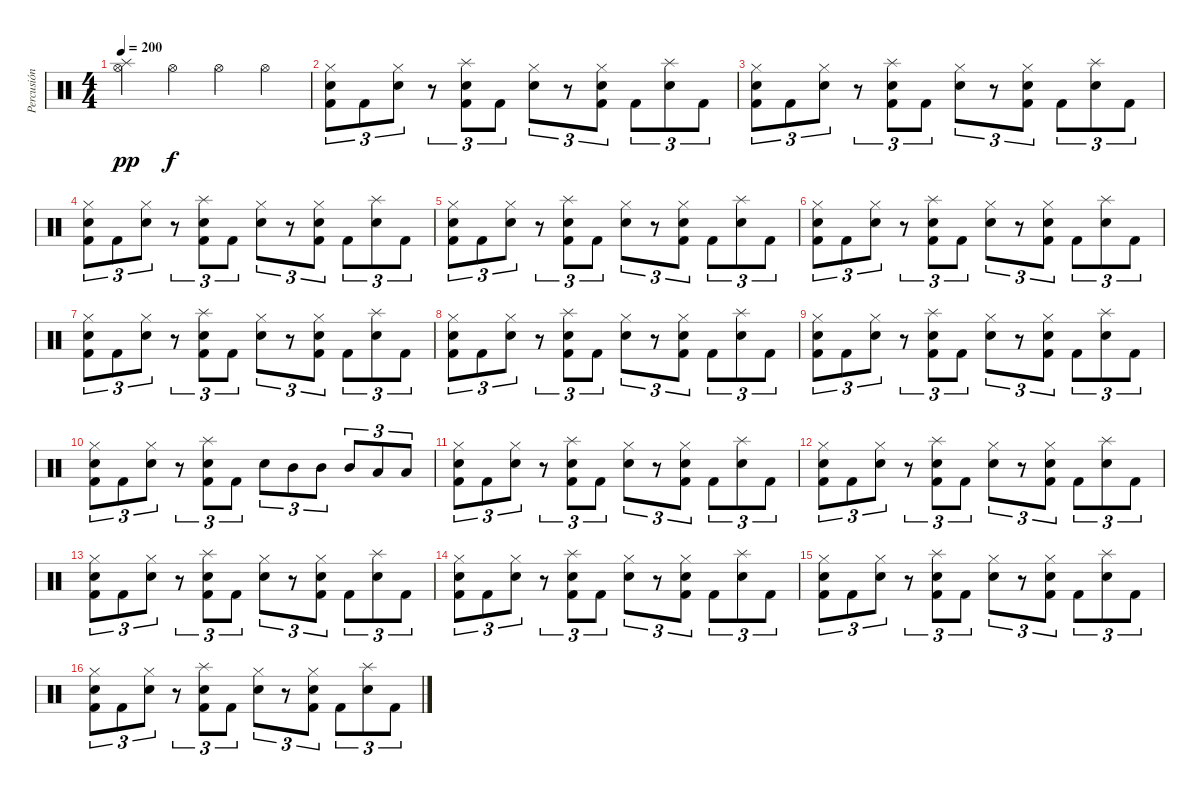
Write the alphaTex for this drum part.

\track ("Percusión" "Percusión") {instrument percussion}
\staff {score}
\articulation defaults
\ts (4 4)
\tempo 200
\clef neutral
\ks c
("Splash (hit)" "Hi-Hat (open)").4{dy pp} "Hi-Hat (open)".4{dy f} "Hi-Hat (open)".4 "Hi-Hat (open)".4 |
("Hi-Hat (closed)" "Snare (hit) 2" "Kick (hit) 2").8{tu (3 2)} "Kick (hit) 2".8{tu (3 2)} ("Hi-Hat (closed)" "Snare (hit) 2").8{tu (3 2)} r.8{tu (3 2)} ("Splash (hit)" "Snare (hit) 2" "Kick (hit) 2").8{tu (3 2)} "Kick (hit) 2".8{tu (3 2)} ("Hi-Hat (closed)" "Snare (hit) 2").8{tu (3 2)} r.8{tu (3 2)} ("Hi-Hat (closed)" "Snare (hit) 2" "Kick (hit) 2").8{tu (3 2)} "Kick (hit) 2".8{tu (3 2)} ("Splash (hit)" "Snare (hit) 2").8{tu (3 2)} "Kick (hit) 2".8{tu (3 2)} |
("Hi-Hat (closed)" "Snare (hit) 2" "Kick (hit) 2").8{tu (3 2)} "Kick (hit) 2".8{tu (3 2)} ("Hi-Hat (closed)" "Snare (hit) 2").8{tu (3 2)} r.8{tu (3 2)} ("Splash (hit)" "Snare (hit) 2" "Kick (hit) 2").8{tu (3 2)} "Kick (hit) 2".8{tu (3 2)} ("Hi-Hat (closed)" "Snare (hit) 2").8{tu (3 2)} r.8{tu (3 2)} ("Hi-Hat (closed)" "Snare (hit) 2" "Kick (hit) 2").8{tu (3 2)} "Kick (hit) 2".8{tu (3 2)} ("Splash (hit)" "Snare (hit) 2").8{tu (3 2)} "Kick (hit) 2".8{tu (3 2)} |
("Hi-Hat (closed)" "Snare (hit) 2" "Kick (hit) 2").8{tu (3 2)} "Kick (hit) 2".8{tu (3 2)} ("Hi-Hat (closed)" "Snare (hit) 2").8{tu (3 2)} r.8{tu (3 2)} ("Splash (hit)" "Snare (hit) 2" "Kick (hit) 2").8{tu (3 2)} "Kick (hit) 2".8{tu (3 2)} ("Hi-Hat (closed)" "Snare (hit) 2").8{tu (3 2)} r.8{tu (3 2)} ("Hi-Hat (closed)" "Snare (hit) 2" "Kick (hit) 2").8{tu (3 2)} "Kick (hit) 2".8{tu (3 2)} ("Splash (hit)" "Snare (hit) 2").8{tu (3 2)} "Kick (hit) 2".8{tu (3 2)} |
("Hi-Hat (closed)" "Snare (hit) 2" "Kick (hit) 2").8{tu (3 2)} "Kick (hit) 2".8{tu (3 2)} ("Hi-Hat (closed)" "Snare (hit) 2").8{tu (3 2)} r.8{tu (3 2)} ("Splash (hit)" "Snare (hit) 2" "Kick (hit) 2").8{tu (3 2)} "Kick (hit) 2".8{tu (3 2)} ("Hi-Hat (closed)" "Snare (hit) 2").8{tu (3 2)} r.8{tu (3 2)} ("Hi-Hat (closed)" "Snare (hit) 2" "Kick (hit) 2").8{tu (3 2)} "Kick (hit) 2".8{tu (3 2)} ("Splash (hit)" "Snare (hit) 2").8{tu (3 2)} "Kick (hit) 2".8{tu (3 2)} |
("Hi-Hat (closed)" "Snare (hit) 2" "Kick (hit) 2").8{tu (3 2)} "Kick (hit) 2".8{tu (3 2)} ("Hi-Hat (closed)" "Snare (hit) 2").8{tu (3 2)} r.8{tu (3 2)} ("Splash (hit)" "Snare (hit) 2" "Kick (hit) 2").8{tu (3 2)} "Kick (hit) 2".8{tu (3 2)} ("Hi-Hat (closed)" "Snare (hit) 2").8{tu (3 2)} r.8{tu (3 2)} ("Hi-Hat (closed)" "Snare (hit) 2" "Kick (hit) 2").8{tu (3 2)} "Kick (hit) 2".8{tu (3 2)} ("Splash (hit)" "Snare (hit) 2").8{tu (3 2)} "Kick (hit) 2".8{tu (3 2)} |
("Hi-Hat (closed)" "Snare (hit) 2" "Kick (hit) 2").8{tu (3 2)} "Kick (hit) 2".8{tu (3 2)} ("Hi-Hat (closed)" "Snare (hit) 2").8{tu (3 2)} r.8{tu (3 2)} ("Splash (hit)" "Snare (hit) 2" "Kick (hit) 2").8{tu (3 2)} "Kick (hit) 2".8{tu (3 2)} ("Hi-Hat (closed)" "Snare (hit) 2").8{tu (3 2)} r.8{tu (3 2)} ("Hi-Hat (closed)" "Snare (hit) 2" "Kick (hit) 2").8{tu (3 2)} "Kick (hit) 2".8{tu (3 2)} ("Splash (hit)" "Snare (hit) 2").8{tu (3 2)} "Kick (hit) 2".8{tu (3 2)} |
("Hi-Hat (closed)" "Snare (hit) 2" "Kick (hit) 2").8{tu (3 2)} "Kick (hit) 2".8{tu (3 2)} ("Hi-Hat (closed)" "Snare (hit) 2").8{tu (3 2)} r.8{tu (3 2)} ("Splash (hit)" "Snare (hit) 2" "Kick (hit) 2").8{tu (3 2)} "Kick (hit) 2".8{tu (3 2)} ("Hi-Hat (closed)" "Snare (hit) 2").8{tu (3 2)} r.8{tu (3 2)} ("Hi-Hat (closed)" "Snare (hit) 2" "Kick (hit) 2").8{tu (3 2)} "Kick (hit) 2".8{tu (3 2)} ("Splash (hit)" "Snare (hit) 2").8{tu (3 2)} "Kick (hit) 2".8{tu (3 2)} |
("Hi-Hat (closed)" "Snare (hit) 2" "Kick (hit) 2").8{tu (3 2)} "Kick (hit) 2".8{tu (3 2)} ("Hi-Hat (closed)" "Snare (hit) 2").8{tu (3 2)} r.8{tu (3 2)} ("Splash (hit)" "Snare (hit) 2" "Kick (hit) 2").8{tu (3 2)} "Kick (hit) 2".8{tu (3 2)} ("Hi-Hat (closed)" "Snare (hit) 2").8{tu (3 2)} r.8{tu (3 2)} ("Hi-Hat (closed)" "Snare (hit) 2" "Kick (hit) 2").8{tu (3 2)} "Kick (hit) 2".8{tu (3 2)} ("Splash (hit)" "Snare (hit) 2").8{tu (3 2)} "Kick (hit) 2".8{tu (3 2)} |
("Hi-Hat (closed)" "Snare (hit) 2" "Kick (hit) 2").8{tu (3 2)} "Kick (hit) 2".8{tu (3 2)} ("Hi-Hat (closed)" "Snare (hit) 2").8{tu (3 2)} r.8{tu (3 2)} ("Splash (hit)" "Snare (hit) 2" "Kick (hit) 2").8{tu (3 2)} "Kick (hit) 2".8{tu (3 2)} "Snare (hit) 2".8{tu (3 2)} "Mid Tom (hit)".8{tu (3 2)} "Mid Tom (hit)".8{tu (3 2)} "Mid Tom (hit)".8{tu (3 2)} "Low Tom (hit)".8{tu (3 2)} "Low Tom (hit)".8{tu (3 2)} |
("Hi-Hat (closed)" "Snare (hit) 2" "Kick (hit) 2").8{tu (3 2)} "Kick (hit) 2".8{tu (3 2)} ("Hi-Hat (closed)" "Snare (hit) 2").8{tu (3 2)} r.8{tu (3 2)} ("Splash (hit)" "Snare (hit) 2" "Kick (hit) 2").8{tu (3 2)} "Kick (hit) 2".8{tu (3 2)} ("Hi-Hat (closed)" "Snare (hit) 2").8{tu (3 2)} r.8{tu (3 2)} ("Hi-Hat (closed)" "Snare (hit) 2" "Kick (hit) 2").8{tu (3 2)} "Kick (hit) 2".8{tu (3 2)} ("Splash (hit)" "Snare (hit) 2").8{tu (3 2)} "Kick (hit) 2".8{tu (3 2)} |
("Hi-Hat (closed)" "Snare (hit) 2" "Kick (hit) 2").8{tu (3 2)} "Kick (hit) 2".8{tu (3 2)} ("Hi-Hat (closed)" "Snare (hit) 2").8{tu (3 2)} r.8{tu (3 2)} ("Splash (hit)" "Snare (hit) 2" "Kick (hit) 2").8{tu (3 2)} "Kick (hit) 2".8{tu (3 2)} ("Hi-Hat (closed)" "Snare (hit) 2").8{tu (3 2)} r.8{tu (3 2)} ("Hi-Hat (closed)" "Snare (hit) 2" "Kick (hit) 2").8{tu (3 2)} "Kick (hit) 2".8{tu (3 2)} ("Splash (hit)" "Snare (hit) 2").8{tu (3 2)} "Kick (hit) 2".8{tu (3 2)} |
("Hi-Hat (closed)" "Snare (hit) 2" "Kick (hit) 2").8{tu (3 2)} "Kick (hit) 2".8{tu (3 2)} ("Hi-Hat (closed)" "Snare (hit) 2").8{tu (3 2)} r.8{tu (3 2)} ("Splash (hit)" "Snare (hit) 2" "Kick (hit) 2").8{tu (3 2)} "Kick (hit) 2".8{tu (3 2)} ("Hi-Hat (closed)" "Snare (hit) 2").8{tu (3 2)} r.8{tu (3 2)} ("Hi-Hat (closed)" "Snare (hit) 2" "Kick (hit) 2").8{tu (3 2)} "Kick (hit) 2".8{tu (3 2)} ("Splash (hit)" "Snare (hit) 2").8{tu (3 2)} "Kick (hit) 2".8{tu (3 2)} |
("Hi-Hat (closed)" "Snare (hit) 2" "Kick (hit) 2").8{tu (3 2)} "Kick (hit) 2".8{tu (3 2)} ("Hi-Hat (closed)" "Snare (hit) 2").8{tu (3 2)} r.8{tu (3 2)} ("Splash (hit)" "Snare (hit) 2" "Kick (hit) 2").8{tu (3 2)} "Kick (hit) 2".8{tu (3 2)} ("Hi-Hat (closed)" "Snare (hit) 2").8{tu (3 2)} r.8{tu (3 2)} ("Hi-Hat (closed)" "Snare (hit) 2" "Kick (hit) 2").8{tu (3 2)} "Kick (hit) 2".8{tu (3 2)} ("Splash (hit)" "Snare (hit) 2").8{tu (3 2)} "Kick (hit) 2".8{tu (3 2)} |
("Hi-Hat (closed)" "Snare (hit) 2" "Kick (hit) 2").8{tu (3 2)} "Kick (hit) 2".8{tu (3 2)} ("Hi-Hat (closed)" "Snare (hit) 2").8{tu (3 2)} r.8{tu (3 2)} ("Splash (hit)" "Snare (hit) 2" "Kick (hit) 2").8{tu (3 2)} "Kick (hit) 2".8{tu (3 2)} ("Hi-Hat (closed)" "Snare (hit) 2").8{tu (3 2)} r.8{tu (3 2)} ("Hi-Hat (closed)" "Snare (hit) 2" "Kick (hit) 2").8{tu (3 2)} "Kick (hit) 2".8{tu (3 2)} ("Splash (hit)" "Snare (hit) 2").8{tu (3 2)} "Kick (hit) 2".8{tu (3 2)} |
("Hi-Hat (closed)" "Snare (hit) 2" "Kick (hit) 2").8{tu (3 2)} "Kick (hit) 2".8{tu (3 2)} ("Hi-Hat (closed)" "Snare (hit) 2").8{tu (3 2)} r.8{tu (3 2)} ("Splash (hit)" "Snare (hit) 2" "Kick (hit) 2").8{tu (3 2)} "Kick (hit) 2".8{tu (3 2)} ("Hi-Hat (closed)" "Snare (hit) 2").8{tu (3 2)} r.8{tu (3 2)} ("Hi-Hat (closed)" "Snare (hit) 2" "Kick (hit) 2").8{tu (3 2)} "Kick (hit) 2".8{tu (3 2)} ("Splash (hit)" "Snare (hit) 2").8{tu (3 2)} "Kick (hit) 2".8{tu (3 2)}
